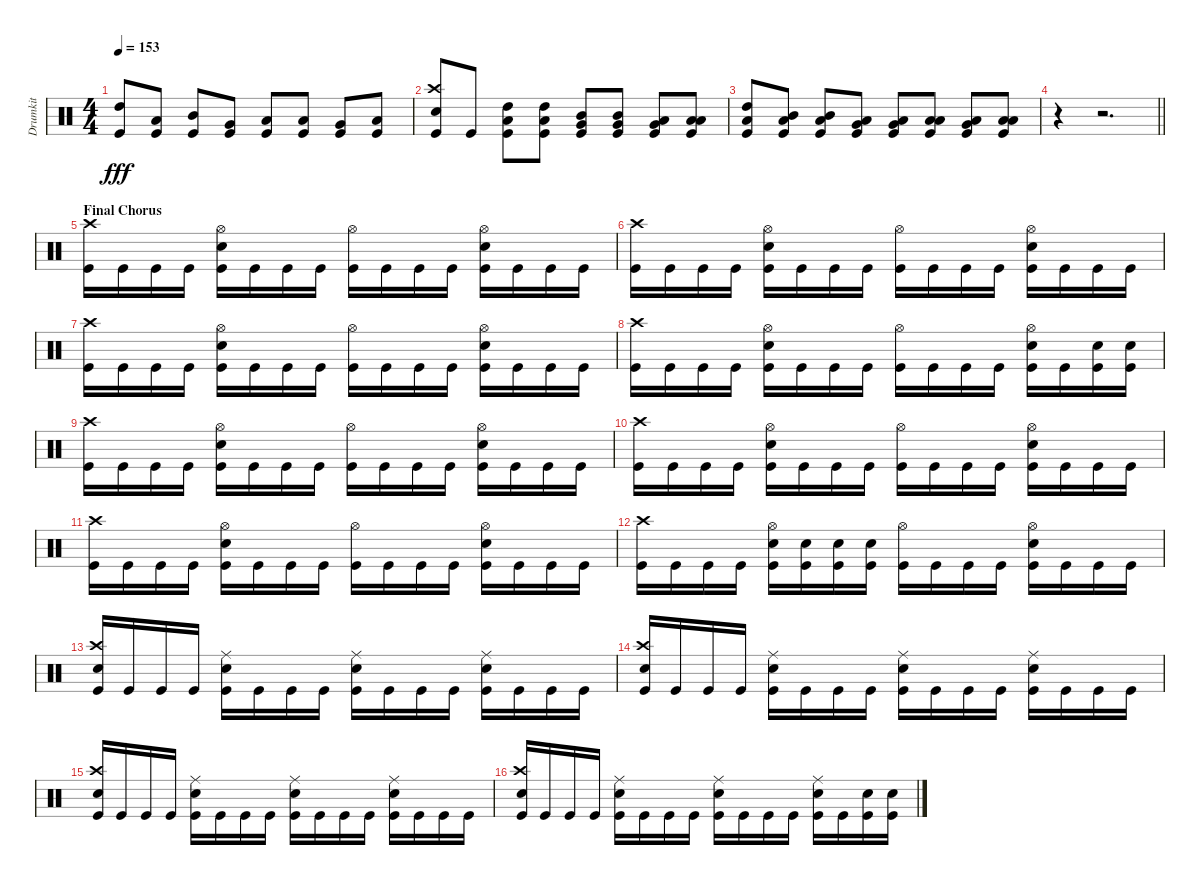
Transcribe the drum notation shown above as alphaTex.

\track ("Drumkit" "Drumkit") {instrument percussion}
\staff {score}
\articulation defaults
\ts (4 4)
\tempo 153
\clef neutral
\ks c
("High Tom (hit)" "Kick (hit)").8{dy fff} ("Low Tom (hit)" "Kick (hit)").8 ("Mid Tom (hit)" "Kick (hit)").8 ("Very Low Tom (hit)" "Kick (hit)").8 ("Low Tom (hit)" "Kick (hit)").8 ("Low Floor Tom (hit)" "Kick (hit)").8 ("Very Low Tom (hit)" "Kick (hit)").8 ("Low Floor Tom (hit)" "Kick (hit)").8 |
("Crash high (hit)" "Snare (hit) 2" "Kick (hit)").8 "Kick (hit)".8 ("High Tom (hit)" "Low Tom (hit)" "Kick (hit)").8 ("High Tom (hit)" "Low Tom (hit)" "Kick (hit)").8 ("Mid Tom (hit)" "Very Low Tom (hit)" "Kick (hit)").8 ("Mid Tom (hit)" "Very Low Tom (hit)" "Kick (hit)").8 ("Low Tom (hit)" "Very Low Tom (hit)" "Kick (hit)").8 ("Low Tom (hit)" "Low Floor Tom (hit)" "Kick (hit)").8 |
("High Tom (hit)" "Low Tom (hit)" "Kick (hit)").8 ("Mid Tom (hit)" "Low Tom (hit)" "Kick (hit)").8 ("Mid Tom (hit)" "Low Tom (hit)" "Kick (hit)").8 ("Low Tom (hit)" "Very Low Tom (hit)" "Kick (hit)").8 ("Low Tom (hit)" "Very Low Tom (hit)" "Kick (hit)").8 ("Low Tom (hit)" "Low Floor Tom (hit)" "Kick (hit)").8 ("Very Low Tom (hit)" "Low Tom (hit)" "Kick (hit)").8 ("Low Tom (hit)" "Low Floor Tom (hit)" "Kick (hit)").8 |
\barLineRight lightlight
r.4 r.2{d} |
\section ("" "Final Chorus")
("Crash high (hit)" "Kick (hit)").16 "Kick (hit)".16 "Kick (hit)".16 "Kick (hit)".16 ("Hi-Hat (open)" "Snare (hit) 2" "Kick (hit)").16 "Kick (hit)".16 "Kick (hit)".16 "Kick (hit)".16 ("Hi-Hat (open)" "Kick (hit)").16 "Kick (hit)".16 "Kick (hit)".16 "Kick (hit)".16 ("Hi-Hat (open)" "Snare (hit) 2" "Kick (hit)").16 "Kick (hit)".16 "Kick (hit)".16 "Kick (hit)".16 |
("Crash high (hit)" "Kick (hit)").16 "Kick (hit)".16 "Kick (hit)".16 "Kick (hit)".16 ("Hi-Hat (open)" "Snare (hit) 2" "Kick (hit)").16 "Kick (hit)".16 "Kick (hit)".16 "Kick (hit)".16 ("Hi-Hat (open)" "Kick (hit)").16 "Kick (hit)".16 "Kick (hit)".16 "Kick (hit)".16 ("Hi-Hat (open)" "Snare (hit) 2" "Kick (hit)").16 "Kick (hit)".16 "Kick (hit)".16 "Kick (hit)".16 |
("Crash high (hit)" "Kick (hit)").16 "Kick (hit)".16 "Kick (hit)".16 "Kick (hit)".16 ("Hi-Hat (open)" "Snare (hit) 2" "Kick (hit)").16 "Kick (hit)".16 "Kick (hit)".16 "Kick (hit)".16 ("Hi-Hat (open)" "Kick (hit)").16 "Kick (hit)".16 "Kick (hit)".16 "Kick (hit)".16 ("Hi-Hat (open)" "Snare (hit) 2" "Kick (hit)").16 "Kick (hit)".16 "Kick (hit)".16 "Kick (hit)".16 |
("Crash high (hit)" "Kick (hit)").16 "Kick (hit)".16 "Kick (hit)".16 "Kick (hit)".16 ("Hi-Hat (open)" "Snare (hit) 2" "Kick (hit)").16 "Kick (hit)".16 "Kick (hit)".16 "Kick (hit)".16 ("Hi-Hat (open)" "Kick (hit)").16 "Kick (hit)".16 "Kick (hit)".16 "Kick (hit)".16 ("Hi-Hat (open)" "Snare (hit) 2" "Kick (hit)").16 "Kick (hit)".16 ("Snare (hit) 2" "Kick (hit)").16 ("Snare (hit) 2" "Kick (hit)").16 |
("Crash high (hit)" "Kick (hit)").16 "Kick (hit)".16 "Kick (hit)".16 "Kick (hit)".16 ("Hi-Hat (open)" "Snare (hit) 2" "Kick (hit)").16 "Kick (hit)".16 "Kick (hit)".16 "Kick (hit)".16 ("Hi-Hat (open)" "Kick (hit)").16 "Kick (hit)".16 "Kick (hit)".16 "Kick (hit)".16 ("Hi-Hat (open)" "Snare (hit) 2" "Kick (hit)").16 "Kick (hit)".16 "Kick (hit)".16 "Kick (hit)".16 |
("Crash high (hit)" "Kick (hit)").16 "Kick (hit)".16 "Kick (hit)".16 "Kick (hit)".16 ("Hi-Hat (open)" "Snare (hit) 2" "Kick (hit)").16 "Kick (hit)".16 "Kick (hit)".16 "Kick (hit)".16 ("Hi-Hat (open)" "Kick (hit)").16 "Kick (hit)".16 "Kick (hit)".16 "Kick (hit)".16 ("Hi-Hat (open)" "Snare (hit) 2" "Kick (hit)").16 "Kick (hit)".16 "Kick (hit)".16 "Kick (hit)".16 |
("Crash high (hit)" "Kick (hit)").16 "Kick (hit)".16 "Kick (hit)".16 "Kick (hit)".16 ("Hi-Hat (open)" "Snare (hit) 2" "Kick (hit)").16 "Kick (hit)".16 "Kick (hit)".16 "Kick (hit)".16 ("Hi-Hat (open)" "Kick (hit)").16 "Kick (hit)".16 "Kick (hit)".16 "Kick (hit)".16 ("Hi-Hat (open)" "Snare (hit) 2" "Kick (hit)").16 "Kick (hit)".16 "Kick (hit)".16 "Kick (hit)".16 |
("Crash high (hit)" "Kick (hit)").16 "Kick (hit)".16 "Kick (hit)".16 "Kick (hit)".16 ("Hi-Hat (open)" "Snare (hit) 2" "Kick (hit)").16 ("Snare (hit) 2" "Kick (hit)").16 ("Snare (hit) 2" "Kick (hit)").16 ("Snare (hit) 2" "Kick (hit)").16 ("Hi-Hat (open)" "Kick (hit)").16 "Kick (hit)".16 "Kick (hit)".16 "Kick (hit)".16 ("Hi-Hat (open)" "Snare (hit) 2" "Kick (hit)").16 "Kick (hit)".16 "Kick (hit)".16 "Kick (hit)".16 |
("Crash high (hit)" "Snare (hit) 2" "Kick (hit)").16 "Kick (hit)".16 "Kick (hit)".16 "Kick (hit)".16 ("Ride (middle)" "Snare (hit) 2" "Kick (hit)").16 "Kick (hit)".16 "Kick (hit)".16 "Kick (hit)".16 ("Ride (middle)" "Snare (hit) 2" "Kick (hit)").16 "Kick (hit)".16 "Kick (hit)".16 "Kick (hit)".16 ("Ride (middle)" "Snare (hit) 2" "Kick (hit)").16 "Kick (hit)".16 "Kick (hit)".16 "Kick (hit)".16 |
("Crash high (hit)" "Snare (hit) 2" "Kick (hit)").16 "Kick (hit)".16 "Kick (hit)".16 "Kick (hit)".16 ("Ride (middle)" "Snare (hit) 2" "Kick (hit)").16 "Kick (hit)".16 "Kick (hit)".16 "Kick (hit)".16 ("Ride (middle)" "Snare (hit) 2" "Kick (hit)").16 "Kick (hit)".16 "Kick (hit)".16 "Kick (hit)".16 ("Ride (middle)" "Snare (hit) 2" "Kick (hit)").16 "Kick (hit)".16 "Kick (hit)".16 "Kick (hit)".16 |
("Crash high (hit)" "Snare (hit) 2" "Kick (hit)").16 "Kick (hit)".16 "Kick (hit)".16 "Kick (hit)".16 ("Ride (middle)" "Snare (hit) 2" "Kick (hit)").16 "Kick (hit)".16 "Kick (hit)".16 "Kick (hit)".16 ("Ride (middle)" "Snare (hit) 2" "Kick (hit)").16 "Kick (hit)".16 "Kick (hit)".16 "Kick (hit)".16 ("Ride (middle)" "Snare (hit) 2" "Kick (hit)").16 "Kick (hit)".16 "Kick (hit)".16 "Kick (hit)".16 |
("Crash high (hit)" "Snare (hit) 2" "Kick (hit)").16 "Kick (hit)".16 "Kick (hit)".16 "Kick (hit)".16 ("Ride (middle)" "Snare (hit) 2" "Kick (hit)").16 "Kick (hit)".16 "Kick (hit)".16 "Kick (hit)".16 ("Ride (middle)" "Snare (hit) 2" "Kick (hit)").16 "Kick (hit)".16 "Kick (hit)".16 "Kick (hit)".16 ("Ride (middle)" "Snare (hit) 2" "Kick (hit)").16 "Kick (hit)".16 ("Snare (hit) 2" "Kick (hit)").16 ("Snare (hit) 2" "Kick (hit)").16
